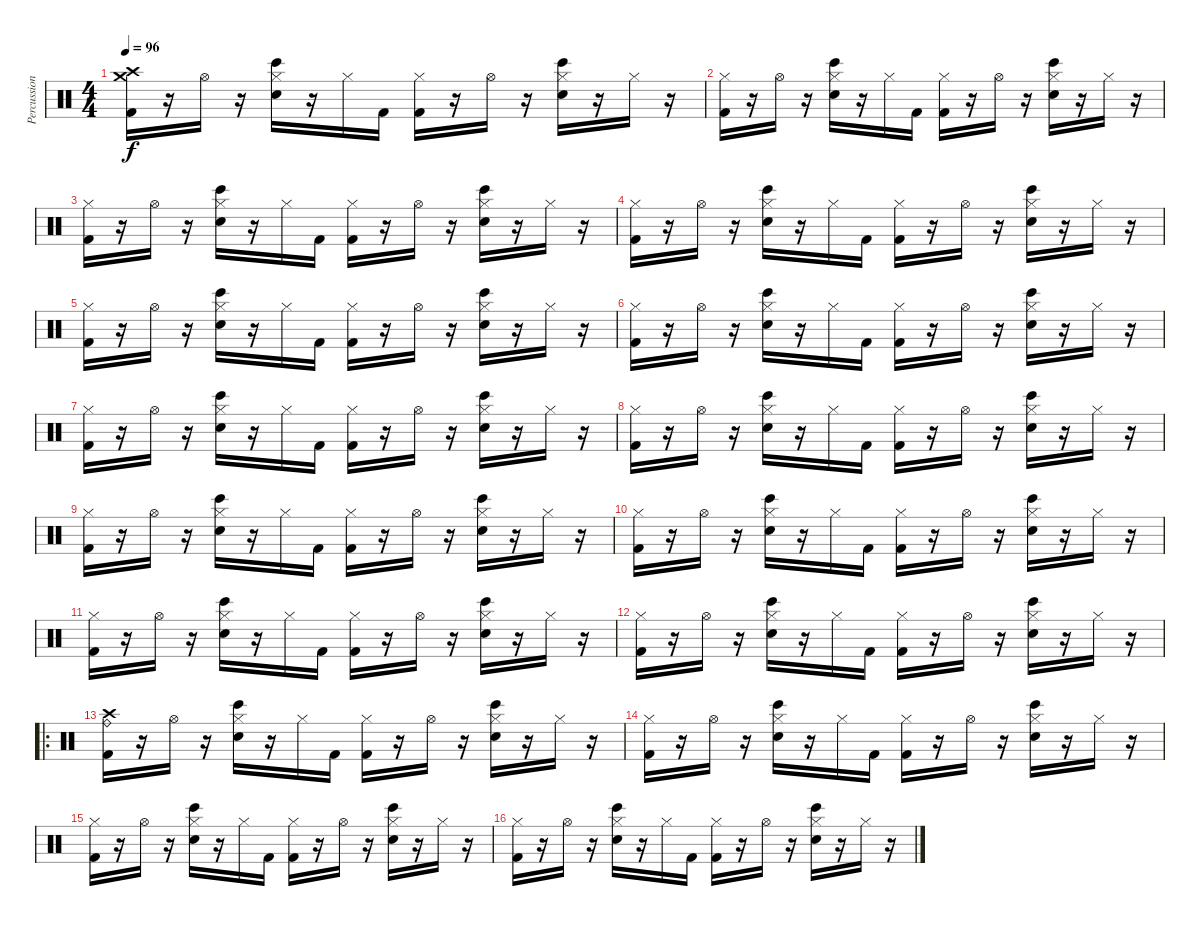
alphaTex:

\track ("Percussion" "Percussion") {instrument percussion}
\staff {score}
\articulation defaults
\ts (4 4)
\tempo 96
\clef neutral
\ks c
("Crash high (hit)" "Crash medium (hit)" "Kick (hit) 2").16{dy f} r.16 "Hi-Hat (open)".16 r.16 ("Hi-Hat (closed)" "Bongo High (hit)" "Snare (hit) 2").16 r.16 "Hi-Hat (closed)".16 "Kick (hit) 2".16 ("Hi-Hat (closed)" "Kick (hit) 2").16 r.16 "Hi-Hat (open)".16 r.16 ("Hi-Hat (closed)" "Bongo High (hit)" "Snare (hit) 2").16 r.16 "Hi-Hat (closed)".16 r.16 |
("Hi-Hat (closed)" "Kick (hit) 2").16 r.16 "Hi-Hat (open)".16 r.16 ("Hi-Hat (closed)" "Bongo High (hit)" "Snare (hit) 2").16 r.16 "Hi-Hat (closed)".16 "Kick (hit) 2".16 ("Hi-Hat (closed)" "Kick (hit) 2").16 r.16 "Hi-Hat (open)".16 r.16 ("Hi-Hat (closed)" "Bongo High (hit)" "Snare (hit) 2").16 r.16 "Hi-Hat (closed)".16 r.16 |
("Hi-Hat (closed)" "Kick (hit) 2").16 r.16 "Hi-Hat (open)".16 r.16 ("Hi-Hat (closed)" "Bongo High (hit)" "Snare (hit) 2").16 r.16 "Hi-Hat (closed)".16 "Kick (hit) 2".16 ("Hi-Hat (closed)" "Kick (hit) 2").16 r.16 "Hi-Hat (open)".16 r.16 ("Hi-Hat (closed)" "Bongo High (hit)" "Snare (hit) 2").16 r.16 "Hi-Hat (closed)".16 r.16 |
("Hi-Hat (closed)" "Kick (hit) 2").16 r.16 "Hi-Hat (open)".16 r.16 ("Hi-Hat (closed)" "Bongo High (hit)" "Snare (hit) 2").16 r.16 "Hi-Hat (closed)".16 "Kick (hit) 2".16 ("Hi-Hat (closed)" "Kick (hit) 2").16 r.16 "Hi-Hat (open)".16 r.16 ("Hi-Hat (closed)" "Bongo High (hit)" "Snare (hit) 2").16 r.16 "Hi-Hat (closed)".16 r.16 |
("Hi-Hat (closed)" "Kick (hit) 2").16 r.16 "Hi-Hat (open)".16 r.16 ("Hi-Hat (closed)" "Bongo High (hit)" "Snare (hit) 2").16 r.16 "Hi-Hat (closed)".16 "Kick (hit) 2".16 ("Hi-Hat (closed)" "Kick (hit) 2").16 r.16 "Hi-Hat (open)".16 r.16 ("Hi-Hat (closed)" "Bongo High (hit)" "Snare (hit) 2").16 r.16 "Hi-Hat (closed)".16 r.16 |
("Hi-Hat (closed)" "Kick (hit) 2").16 r.16 "Hi-Hat (open)".16 r.16 ("Hi-Hat (closed)" "Bongo High (hit)" "Snare (hit) 2").16 r.16 "Hi-Hat (closed)".16 "Kick (hit) 2".16 ("Hi-Hat (closed)" "Kick (hit) 2").16 r.16 "Hi-Hat (open)".16 r.16 ("Hi-Hat (closed)" "Bongo High (hit)" "Snare (hit) 2").16 r.16 "Hi-Hat (closed)".16 r.16 |
("Hi-Hat (closed)" "Kick (hit) 2").16 r.16 "Hi-Hat (open)".16 r.16 ("Hi-Hat (closed)" "Bongo High (hit)" "Snare (hit) 2").16 r.16 "Hi-Hat (closed)".16 "Kick (hit) 2".16 ("Hi-Hat (closed)" "Kick (hit) 2").16 r.16 "Hi-Hat (open)".16 r.16 ("Hi-Hat (closed)" "Bongo High (hit)" "Snare (hit) 2").16 r.16 "Hi-Hat (closed)".16 r.16 |
("Hi-Hat (closed)" "Kick (hit) 2").16 r.16 "Hi-Hat (open)".16 r.16 ("Hi-Hat (closed)" "Bongo High (hit)" "Snare (hit) 2").16 r.16 "Hi-Hat (closed)".16 "Kick (hit) 2".16 ("Hi-Hat (closed)" "Kick (hit) 2").16 r.16 "Hi-Hat (open)".16 r.16 ("Hi-Hat (closed)" "Bongo High (hit)" "Snare (hit) 2").16 r.16 "Hi-Hat (closed)".16 r.16 |
("Hi-Hat (closed)" "Kick (hit) 2").16 r.16 "Hi-Hat (open)".16 r.16 ("Hi-Hat (closed)" "Bongo High (hit)" "Snare (hit) 2").16 r.16 "Hi-Hat (closed)".16 "Kick (hit) 2".16 ("Hi-Hat (closed)" "Kick (hit) 2").16 r.16 "Hi-Hat (open)".16 r.16 ("Hi-Hat (closed)" "Bongo High (hit)" "Snare (hit) 2").16 r.16 "Hi-Hat (closed)".16 r.16 |
("Hi-Hat (closed)" "Kick (hit) 2").16 r.16 "Hi-Hat (open)".16 r.16 ("Hi-Hat (closed)" "Bongo High (hit)" "Snare (hit) 2").16 r.16 "Hi-Hat (closed)".16 "Kick (hit) 2".16 ("Hi-Hat (closed)" "Kick (hit) 2").16 r.16 "Hi-Hat (open)".16 r.16 ("Hi-Hat (closed)" "Bongo High (hit)" "Snare (hit) 2").16 r.16 "Hi-Hat (closed)".16 r.16 |
("Hi-Hat (closed)" "Kick (hit) 2").16 r.16 "Hi-Hat (open)".16 r.16 ("Hi-Hat (closed)" "Bongo High (hit)" "Snare (hit) 2").16 r.16 "Hi-Hat (closed)".16 "Kick (hit) 2".16 ("Hi-Hat (closed)" "Kick (hit) 2").16 r.16 "Hi-Hat (open)".16 r.16 ("Hi-Hat (closed)" "Bongo High (hit)" "Snare (hit) 2").16 r.16 "Hi-Hat (closed)".16 r.16 |
("Hi-Hat (closed)" "Kick (hit) 2").16 r.16 "Hi-Hat (open)".16 r.16 ("Hi-Hat (closed)" "Bongo High (hit)" "Snare (hit) 2").16 r.16 "Hi-Hat (closed)".16 "Kick (hit) 2".16 ("Hi-Hat (closed)" "Kick (hit) 2").16 r.16 "Hi-Hat (open)".16 r.16 ("Hi-Hat (closed)" "Bongo High (hit)" "Snare (hit) 2").16 r.16 "Hi-Hat (closed)".16 r.16 |
\ro
("Crash high (hit)" "Ride (bell)" "Kick (hit) 2").16 r.16 "Hi-Hat (open)".16 r.16 ("Hi-Hat (closed)" "Bongo High (hit)" "Snare (hit) 2").16 r.16 "Hi-Hat (closed)".16 "Kick (hit) 2".16 ("Hi-Hat (closed)" "Kick (hit) 2").16 r.16 "Hi-Hat (open)".16 r.16 ("Hi-Hat (closed)" "Bongo High (hit)" "Snare (hit) 2").16 r.16 "Hi-Hat (closed)".16 r.16 |
("Hi-Hat (closed)" "Kick (hit) 2").16 r.16 "Hi-Hat (open)".16 r.16 ("Hi-Hat (closed)" "Bongo High (hit)" "Snare (hit) 2").16 r.16 "Hi-Hat (closed)".16 "Kick (hit) 2".16 ("Hi-Hat (closed)" "Kick (hit) 2").16 r.16 "Hi-Hat (open)".16 r.16 ("Hi-Hat (closed)" "Bongo High (hit)" "Snare (hit) 2").16 r.16 "Hi-Hat (closed)".16 r.16 |
("Hi-Hat (closed)" "Kick (hit) 2").16 r.16 "Hi-Hat (open)".16 r.16 ("Hi-Hat (closed)" "Bongo High (hit)" "Snare (hit) 2").16 r.16 "Hi-Hat (closed)".16 "Kick (hit) 2".16 ("Hi-Hat (closed)" "Kick (hit) 2").16 r.16 "Hi-Hat (open)".16 r.16 ("Hi-Hat (closed)" "Bongo High (hit)" "Snare (hit) 2").16 r.16 "Hi-Hat (closed)".16 r.16 |
("Hi-Hat (closed)" "Kick (hit) 2").16 r.16 "Hi-Hat (open)".16 r.16 ("Hi-Hat (closed)" "Bongo High (hit)" "Snare (hit) 2").16 r.16 "Hi-Hat (closed)".16 "Kick (hit) 2".16 ("Hi-Hat (closed)" "Kick (hit) 2").16 r.16 "Hi-Hat (open)".16 r.16 ("Hi-Hat (closed)" "Bongo High (hit)" "Snare (hit) 2").16 r.16 "Hi-Hat (closed)".16 r.16
